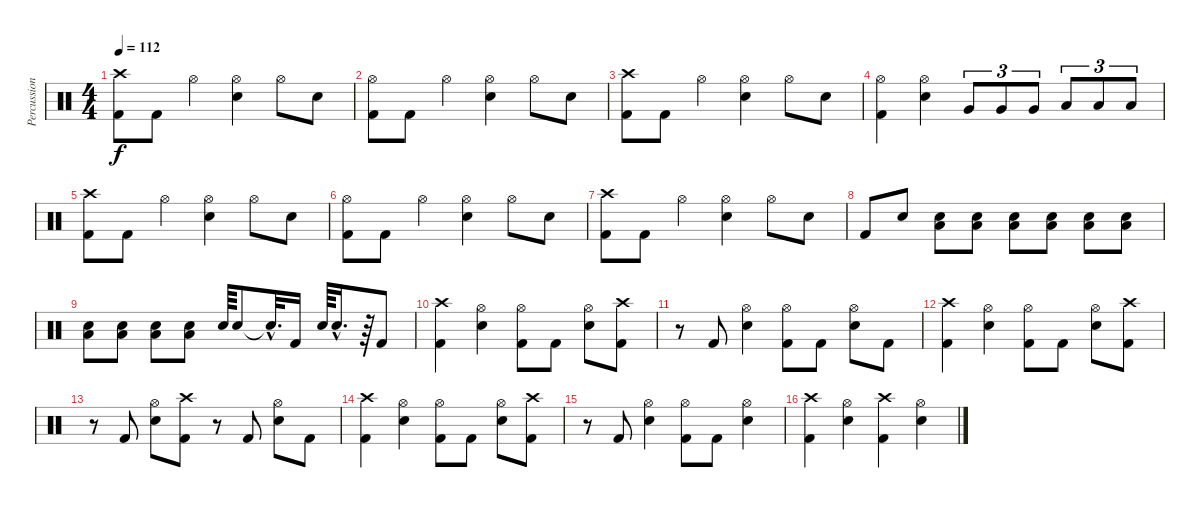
\track ("Percussion" "Percussion") {instrument percussion}
\staff {score}
\articulation defaults
\ts (4 4)
\tempo 112
\clef neutral
\ks c
("Crash high (hit)" "Kick (hit) 2").8{dy f} "Kick (hit) 2".8 "Hi-Hat (open)".4 ("Hi-Hat (open)" "Snare (hit) 2").4 "Hi-Hat (open)".8 "Snare (hit) 2".8 |
("Hi-Hat (open)" "Kick (hit) 2").8 "Kick (hit) 2".8 "Hi-Hat (open)".4 ("Hi-Hat (open)" "Snare (hit) 2").4 "Hi-Hat (open)".8 "Snare (hit) 2".8 |
("Crash high (hit)" "Kick (hit) 2").8 "Kick (hit) 2".8 "Hi-Hat (open)".4 ("Hi-Hat (open)" "Snare (hit) 2").4 "Hi-Hat (open)".8 "Snare (hit) 2".8 |
("Hi-Hat (open)" "Kick (hit) 2").4 ("Hi-Hat (open)" "Snare (hit) 2").4 "Very Low Tom (hit)".8{tu (3 2)} "Very Low Tom (hit)".8{tu (3 2)} "Very Low Tom (hit)".8{tu (3 2)} "Low Floor Tom (hit)".8{tu (3 2)} "Low Floor Tom (hit)".8{tu (3 2)} "Low Floor Tom (hit)".8{tu (3 2)} |
("Crash high (hit)" "Kick (hit) 2").8 "Kick (hit) 2".8 "Hi-Hat (open)".4 ("Hi-Hat (open)" "Snare (hit) 2").4 "Hi-Hat (open)".8 "Snare (hit) 2".8 |
("Hi-Hat (open)" "Kick (hit) 2").8 "Kick (hit) 2".8 "Hi-Hat (open)".4 ("Hi-Hat (open)" "Snare (hit) 2").4 "Hi-Hat (open)".8 "Snare (hit) 2".8 |
("Crash high (hit)" "Kick (hit) 2").8 "Kick (hit) 2".8 "Hi-Hat (open)".4 ("Hi-Hat (open)" "Snare (hit) 2").4 "Hi-Hat (open)".8 "Snare (hit) 2".8 |
"Kick (hit) 2".8 "Snare (hit) 2".8 ("Snare (hit) 2" "Low Floor Tom (hit)").8 ("Snare (hit) 2" "Low Floor Tom (hit)").8 ("Snare (hit) 2" "Low Floor Tom (hit)").8 ("Snare (hit) 2" "Low Floor Tom (hit)").8 ("Snare (hit) 2" "Low Floor Tom (hit)").8 ("Snare (hit) 2" "Low Floor Tom (hit)").8 |
("Snare (hit) 2" "Low Floor Tom (hit)").8 ("Snare (hit) 2" "Low Floor Tom (hit)").8 ("Snare (hit) 2" "Low Floor Tom (hit)").8 ("Snare (hit) 2" "Low Floor Tom (hit)").8 "Snare (hit) 2".64 "Snare (hit) 2".8 "Snare (hit)"{hac t}.32{d} "Kick (hit) 2".16 "Snare (hit) 2".64 "Snare (hit) 2"{hac}.16{d} r.64 "Kick (hit) 2".8 |
("Crash high (hit)" "Kick (hit) 2").4 ("Hi-Hat (open)" "Snare (hit) 2").4 ("Hi-Hat (open)" "Kick (hit) 2").8 "Kick (hit) 2".8 ("Hi-Hat (open)" "Snare (hit) 2").8 ("Crash high (hit)" "Kick (hit) 2").8 |
r.8 "Kick (hit) 2".8 ("Hi-Hat (open)" "Snare (hit) 2").4 ("Hi-Hat (open)" "Kick (hit) 2").8 "Kick (hit) 2".8 ("Hi-Hat (open)" "Snare (hit) 2").8 "Kick (hit) 2".8 |
("Crash high (hit)" "Kick (hit) 2").4 ("Hi-Hat (open)" "Snare (hit) 2").4 ("Hi-Hat (open)" "Kick (hit) 2").8 "Kick (hit) 2".8 ("Hi-Hat (open)" "Snare (hit) 2").8 ("Crash high (hit)" "Kick (hit) 2").8 |
r.8 "Kick (hit) 2".8 ("Hi-Hat (open)" "Snare (hit) 2").8 ("Crash high (hit)" "Kick (hit) 2").8 r.8 "Kick (hit) 2".8 ("Hi-Hat (open)" "Snare (hit) 2").8 "Kick (hit) 2".8 |
("Crash high (hit)" "Kick (hit) 2").4 ("Hi-Hat (open)" "Snare (hit) 2").4 ("Hi-Hat (open)" "Kick (hit) 2").8 "Kick (hit) 2".8 ("Hi-Hat (open)" "Snare (hit) 2").8 ("Crash high (hit)" "Kick (hit) 2").8 |
r.8 "Kick (hit) 2".8 ("Hi-Hat (open)" "Snare (hit) 2").4 ("Hi-Hat (open)" "Kick (hit) 2").8 "Kick (hit) 2".8 ("Hi-Hat (open)" "Snare (hit) 2").4 |
("Crash high (hit)" "Kick (hit) 2").4 ("Hi-Hat (open)" "Snare (hit) 2").4 ("Crash high (hit)" "Kick (hit) 2").4 ("Hi-Hat (open)" "Snare (hit) 2").4
